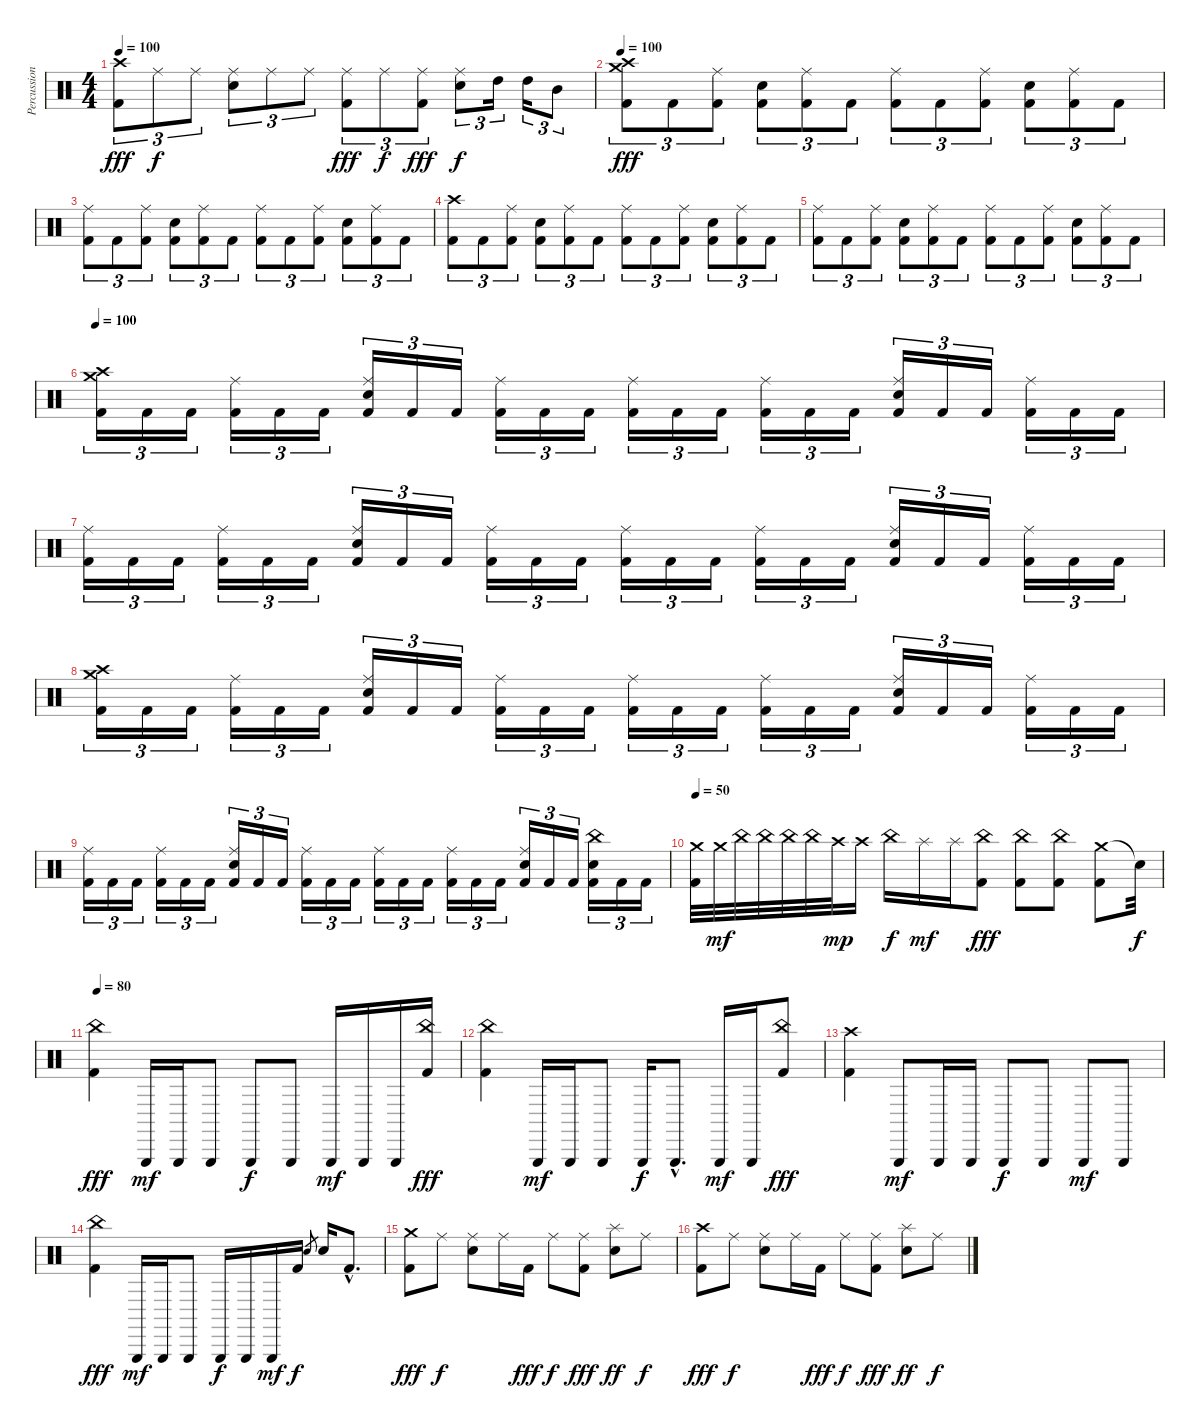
\track ("Percussion" "Percussion") {instrument percussion}
\staff {score}
\articulation defaults
\ts (4 4)
\tempo 100
\clef neutral
\ks c
("Crash high (hit)" "Kick (hit) 2").8{tu (3 2) dy fff} "Ride (middle)".8{tu (3 2) dy f} "Ride (middle)".8{tu (3 2)} ("Ride (middle)" "Electric Snare (hit)").8{tu (3 2)} "Ride (middle)".8{tu (3 2)} "Ride (middle)".8{tu (3 2)} ("Ride (middle)" "Kick (hit) 2").8{tu (3 2) dy fff} "Ride (middle)".8{tu (3 2) dy f} ("Ride (middle)" "Kick (hit) 2").8{tu (3 2) dy fff} ("Ride (middle)" "Electric Snare (hit)").8{tu (3 2) dy f} "High Tom (hit)".16{tu (3 2)} "High Tom (hit)".16{tu (3 2)} "Mid Tom (hit)".8{tu (3 2)} |
\tempo 100
("Crash medium (hit)" "Crash high (hit)" "Kick (hit) 2").8{tu (3 2) dy fff} "Kick (hit) 2".8{tu (3 2)} ("Ride (middle)" "Kick (hit) 2").8{tu (3 2)} ("Electric Snare (hit)" "Kick (hit) 2").8{tu (3 2)} ("Ride (middle)" "Kick (hit) 2").8{tu (3 2)} "Kick (hit) 2".8{tu (3 2)} ("Ride (middle)" "Kick (hit) 2").8{tu (3 2)} "Kick (hit) 2".8{tu (3 2)} ("Ride (middle)" "Kick (hit) 2").8{tu (3 2)} ("Electric Snare (hit)" "Kick (hit) 2").8{tu (3 2)} ("Ride (middle)" "Kick (hit) 2").8{tu (3 2)} "Kick (hit) 2".8{tu (3 2)} |
("Ride (middle)" "Kick (hit) 2").8{tu (3 2)} "Kick (hit) 2".8{tu (3 2)} ("Ride (middle)" "Kick (hit) 2").8{tu (3 2)} ("Electric Snare (hit)" "Kick (hit) 2").8{tu (3 2)} ("Ride (middle)" "Kick (hit) 2").8{tu (3 2)} "Kick (hit) 2".8{tu (3 2)} ("Ride (middle)" "Kick (hit) 2").8{tu (3 2)} "Kick (hit) 2".8{tu (3 2)} ("Ride (middle)" "Kick (hit) 2").8{tu (3 2)} ("Electric Snare (hit)" "Kick (hit) 2").8{tu (3 2)} ("Ride (middle)" "Kick (hit) 2").8{tu (3 2)} "Kick (hit) 2".8{tu (3 2)} |
("Crash high (hit)" "Kick (hit) 2").8{tu (3 2)} "Kick (hit) 2".8{tu (3 2)} ("Ride (middle)" "Kick (hit) 2").8{tu (3 2)} ("Electric Snare (hit)" "Kick (hit) 2").8{tu (3 2)} ("Ride (middle)" "Kick (hit) 2").8{tu (3 2)} "Kick (hit) 2".8{tu (3 2)} ("Ride (middle)" "Kick (hit) 2").8{tu (3 2)} "Kick (hit) 2".8{tu (3 2)} ("Ride (middle)" "Kick (hit) 2").8{tu (3 2)} ("Electric Snare (hit)" "Kick (hit) 2").8{tu (3 2)} ("Ride (middle)" "Kick (hit) 2").8{tu (3 2)} "Kick (hit) 2".8{tu (3 2)} |
("Ride (middle)" "Kick (hit) 2").8{tu (3 2)} "Kick (hit) 2".8{tu (3 2)} ("Ride (middle)" "Kick (hit) 2").8{tu (3 2)} ("Electric Snare (hit)" "Kick (hit) 2").8{tu (3 2)} ("Ride (middle)" "Kick (hit) 2").8{tu (3 2)} "Kick (hit) 2".8{tu (3 2)} ("Ride (middle)" "Kick (hit) 2").8{tu (3 2)} "Kick (hit) 2".8{tu (3 2)} ("Ride (middle)" "Kick (hit) 2").8{tu (3 2)} ("Electric Snare (hit)" "Kick (hit) 2").8{tu (3 2)} ("Ride (middle)" "Kick (hit) 2").8{tu (3 2)} "Kick (hit) 2".8{tu (3 2)} |
\tempo 100
("Crash medium (hit)" "Crash high (hit)" "Kick (hit) 2").16{tu (3 2)} "Kick (hit) 2".16{tu (3 2)} "Kick (hit) 2".16{tu (3 2)} ("Ride (middle)" "Kick (hit) 2").16{tu (3 2)} "Kick (hit) 2".16{tu (3 2)} "Kick (hit) 2".16{tu (3 2)} ("Ride (middle)" "Electric Snare (hit)" "Kick (hit) 2").16{tu (3 2)} "Kick (hit) 2".16{tu (3 2)} "Kick (hit) 2".16{tu (3 2)} ("Ride (middle)" "Kick (hit) 2").16{tu (3 2)} "Kick (hit) 2".16{tu (3 2)} "Kick (hit) 2".16{tu (3 2)} ("Ride (middle)" "Kick (hit) 2").16{tu (3 2)} "Kick (hit) 2".16{tu (3 2)} "Kick (hit) 2".16{tu (3 2)} ("Ride (middle)" "Kick (hit) 2").16{tu (3 2)} "Kick (hit) 2".16{tu (3 2)} "Kick (hit) 2".16{tu (3 2)} ("Ride (middle)" "Electric Snare (hit)" "Kick (hit) 2").16{tu (3 2)} "Kick (hit) 2".16{tu (3 2)} "Kick (hit) 2".16{tu (3 2)} ("Ride (middle)" "Kick (hit) 2").16{tu (3 2)} "Kick (hit) 2".16{tu (3 2)} "Kick (hit) 2".16{tu (3 2)} |
("Ride (middle)" "Kick (hit) 2").16{tu (3 2)} "Kick (hit) 2".16{tu (3 2)} "Kick (hit) 2".16{tu (3 2)} ("Ride (middle)" "Kick (hit) 2").16{tu (3 2)} "Kick (hit) 2".16{tu (3 2)} "Kick (hit) 2".16{tu (3 2)} ("Ride (middle)" "Electric Snare (hit)" "Kick (hit) 2").16{tu (3 2)} "Kick (hit) 2".16{tu (3 2)} "Kick (hit) 2".16{tu (3 2)} ("Ride (middle)" "Kick (hit) 2").16{tu (3 2)} "Kick (hit) 2".16{tu (3 2)} "Kick (hit) 2".16{tu (3 2)} ("Ride (middle)" "Kick (hit) 2").16{tu (3 2)} "Kick (hit) 2".16{tu (3 2)} "Kick (hit) 2".16{tu (3 2)} ("Ride (middle)" "Kick (hit) 2").16{tu (3 2)} "Kick (hit) 2".16{tu (3 2)} "Kick (hit) 2".16{tu (3 2)} ("Ride (middle)" "Electric Snare (hit)" "Kick (hit) 2").16{tu (3 2)} "Kick (hit) 2".16{tu (3 2)} "Kick (hit) 2".16{tu (3 2)} ("Ride (middle)" "Kick (hit) 2").16{tu (3 2)} "Kick (hit) 2".16{tu (3 2)} "Kick (hit) 2".16{tu (3 2)} |
("Crash medium (hit)" "Crash high (hit)" "Kick (hit) 2").16{tu (3 2)} "Kick (hit) 2".16{tu (3 2)} "Kick (hit) 2".16{tu (3 2)} ("Ride (middle)" "Kick (hit) 2").16{tu (3 2)} "Kick (hit) 2".16{tu (3 2)} "Kick (hit) 2".16{tu (3 2)} ("Ride (middle)" "Electric Snare (hit)" "Kick (hit) 2").16{tu (3 2)} "Kick (hit) 2".16{tu (3 2)} "Kick (hit) 2".16{tu (3 2)} ("Ride (middle)" "Kick (hit) 2").16{tu (3 2)} "Kick (hit) 2".16{tu (3 2)} "Kick (hit) 2".16{tu (3 2)} ("Ride (middle)" "Kick (hit) 2").16{tu (3 2)} "Kick (hit) 2".16{tu (3 2)} "Kick (hit) 2".16{tu (3 2)} ("Ride (middle)" "Kick (hit) 2").16{tu (3 2)} "Kick (hit) 2".16{tu (3 2)} "Kick (hit) 2".16{tu (3 2)} ("Ride (middle)" "Electric Snare (hit)" "Kick (hit) 2").16{tu (3 2)} "Kick (hit) 2".16{tu (3 2)} "Kick (hit) 2".16{tu (3 2)} ("Ride (middle)" "Kick (hit) 2").16{tu (3 2)} "Kick (hit) 2".16{tu (3 2)} "Kick (hit) 2".16{tu (3 2)} |
("Ride (middle)" "Kick (hit) 2").16{tu (3 2)} "Kick (hit) 2".16{tu (3 2)} "Kick (hit) 2".16{tu (3 2)} ("Ride (middle)" "Kick (hit) 2").16{tu (3 2)} "Kick (hit) 2".16{tu (3 2)} "Kick (hit) 2".16{tu (3 2)} ("Ride (middle)" "Electric Snare (hit)" "Kick (hit) 2").16{tu (3 2)} "Kick (hit) 2".16{tu (3 2)} "Kick (hit) 2".16{tu (3 2)} ("Ride (middle)" "Kick (hit) 2").16{tu (3 2)} "Kick (hit) 2".16{tu (3 2)} "Kick (hit) 2".16{tu (3 2)} ("Ride (middle)" "Kick (hit) 2").16{tu (3 2)} "Kick (hit) 2".16{tu (3 2)} "Kick (hit) 2".16{tu (3 2)} ("Ride (middle)" "Kick (hit) 2").16{tu (3 2)} "Kick (hit) 2".16{tu (3 2)} "Kick (hit) 2".16{tu (3 2)} ("Ride (middle)" "Electric Snare (hit)" "Kick (hit) 2").16{tu (3 2)} "Kick (hit) 2".16{tu (3 2)} "Kick (hit) 2".16{tu (3 2)} ("China (hit)" "Electric Snare (hit)" "Kick (hit) 2").16{tu (3 2)} "Kick (hit) 2".16{tu (3 2)} "Kick (hit) 2".16{tu (3 2)} |
\tempo 50
("Crash medium (hit)" "Kick (hit) 2").32 "Crash medium (hit)".32{dy mf} "China (hit)".32 "China (hit)".32 "China (hit)".32 "China (hit)".32 "Crash high (hit)".32{dy mp} "Crash high (hit)".16 "China (hit)".16{dy f} "Splash (hit)".16{dy mf} "Splash (hit)".16 ("China (hit)" "Kick (hit) 2").8{dy fff} ("China (hit)" "Kick (hit) 2").8 ("China (hit)" "Kick (hit) 2").8 ("Crash medium (hit)" "Kick (hit) 2").8 "Snare (hit)"{t}.32{dy f} |
\tempo 80
("China (hit)" "Kick (hit) 2").4{dy fff} "Triangle (hit)".16{dy mf} "Triangle (hit)".16 "Triangle (hit)".8 "Triangle (hit)".8{dy f} "Triangle (hit)".8 "Triangle (hit)".16{dy mf} "Triangle (hit)".16 "Triangle (hit)".16 ("China (hit)" "Kick (hit) 2").16{dy fff} |
("China (hit)" "Kick (hit) 2").4 "Triangle (hit)".16{dy mf} "Triangle (hit)".16 "Triangle (hit)".8 "Triangle (hit)".16{dy f} "Triangle (hit)"{hac}.8{d} "Triangle (hit)".16{dy mf} "Triangle (hit)".16 ("China (hit)" "Kick (hit) 2").8{dy fff} |
("Crash high (hit)" "Kick (hit) 2").4 "Triangle (hit)".8{dy mf} "Triangle (hit)".16 "Triangle (hit)".16 "Triangle (hit)".8{dy f} "Triangle (hit)".8 "Triangle (hit)".8{dy mf} "Triangle (hit)".8 |
("China (hit)" "Kick (hit) 2").4{dy fff} "Triangle (hit)".16{dy mf} "Triangle (hit)".16 "Triangle (hit)".8 "Triangle (hit)".16{dy f} "Triangle (hit)".16 "Triangle (hit)".16{dy mf} "Kick (hit) 2".16{dy f} "Electric Snare (hit)".8{gr} "Electric Snare (hit)".16 "Kick (hit) 2"{hac}.8{d} |
("Crash medium (hit)" "Kick (hit) 2").8{dy fff} "Ride (middle)".8{dy f} ("Ride (middle)" "Electric Snare (hit)").8 "Ride (middle)".16 "Kick (hit) 2".16{dy fff} "Ride (middle)".8{dy f} ("Ride (middle)" "Kick (hit) 2").8{dy fff} ("Splash (hit)" "Electric Snare (hit)").8{dy ff} "Ride (middle)".8{dy f} |
("Crash high (hit)" "Kick (hit) 2").8{dy fff} "Ride (middle)".8{dy f} ("Ride (middle)" "Electric Snare (hit)").8 "Ride (middle)".16 "Kick (hit) 2".16{dy fff} "Ride (middle)".8{dy f} ("Ride (middle)" "Kick (hit) 2").8{dy fff} ("Splash (hit)" "Electric Snare (hit)").8{dy ff} "Ride (middle)".8{dy f}
